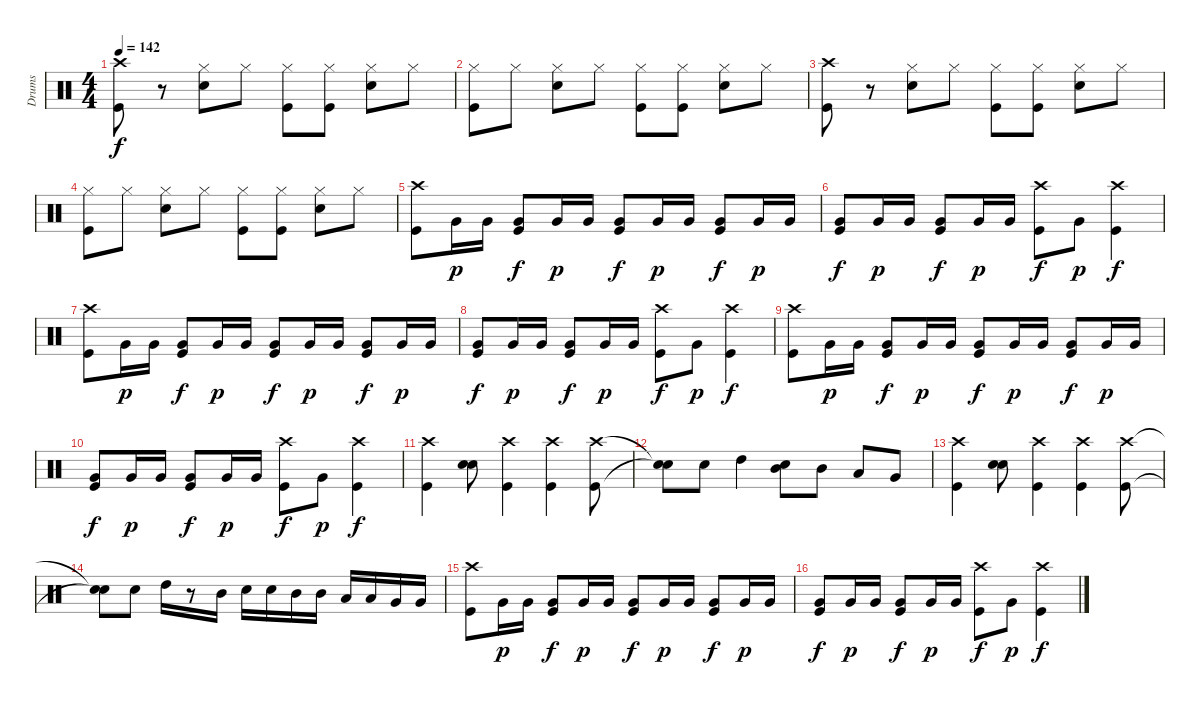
\track ("Drums" "Drums") {instrument percussion}
\staff {score}
\articulation defaults
\ts (4 4)
\tempo 142
\clef neutral
\ks c
("Kick (hit)" "Crash high (hit)").8{dy f} r.8 ("Hi-Hat (closed)" "Snare (hit) 2").8 "Hi-Hat (closed)".8 ("Kick (hit)" "Hi-Hat (closed)").8 ("Hi-Hat (closed)" "Kick (hit)").8 ("Hi-Hat (closed)" "Snare (hit) 2").8 "Hi-Hat (closed)".8 |
("Hi-Hat (closed)" "Kick (hit)").8 "Hi-Hat (closed)".8 ("Hi-Hat (closed)" "Snare (hit) 2").8 "Hi-Hat (closed)".8 ("Hi-Hat (closed)" "Kick (hit)").8 ("Hi-Hat (closed)" "Kick (hit)").8 ("Hi-Hat (closed)" "Snare (hit) 2").8 "Hi-Hat (closed)".8 |
("Kick (hit)" "Crash high (hit)").8 r.8 ("Hi-Hat (closed)" "Snare (hit) 2").8 "Hi-Hat (closed)".8 ("Kick (hit)" "Hi-Hat (closed)").8 ("Hi-Hat (closed)" "Kick (hit)").8 ("Hi-Hat (closed)" "Snare (hit) 2").8 "Hi-Hat (closed)".8 |
("Hi-Hat (closed)" "Kick (hit)").8 "Hi-Hat (closed)".8 ("Hi-Hat (closed)" "Snare (hit) 2").8 "Hi-Hat (closed)".8 ("Hi-Hat (closed)" "Kick (hit)").8 ("Hi-Hat (closed)" "Kick (hit)").8 ("Hi-Hat (closed)" "Snare (hit) 2").8 "Hi-Hat (closed)".8 |
("Kick (hit)" "Crash high (hit)").8 "Very Low Tom (hit)".16{dy p} "Very Low Tom (hit)".16 ("Kick (hit)" "Very Low Tom (hit)").8{dy f} "Very Low Tom (hit)".16{dy p} "Very Low Tom (hit)".16 ("Kick (hit)" "Very Low Tom (hit)").8{dy f} "Very Low Tom (hit)".16{dy p} "Very Low Tom (hit)".16 ("Very Low Tom (hit)" "Kick (hit)").8{dy f} "Very Low Tom (hit)".16{dy p} "Very Low Tom (hit)".16 |
("Very Low Tom (hit)" "Kick (hit)").8{dy f} "Very Low Tom (hit)".16{dy p} "Very Low Tom (hit)".16 ("Very Low Tom (hit)" "Kick (hit)").8{dy f} "Very Low Tom (hit)".16{dy p} "Very Low Tom (hit)".16 ("Kick (hit)" "Crash high (hit)").8{dy f} "Very Low Tom (hit)".8{dy p} ("Crash high (hit)" "Kick (hit)").4{dy f} |
("Kick (hit)" "Crash high (hit)").8 "Very Low Tom (hit)".16{dy p} "Very Low Tom (hit)".16 ("Kick (hit)" "Very Low Tom (hit)").8{dy f} "Very Low Tom (hit)".16{dy p} "Very Low Tom (hit)".16 ("Kick (hit)" "Very Low Tom (hit)").8{dy f} "Very Low Tom (hit)".16{dy p} "Very Low Tom (hit)".16 ("Very Low Tom (hit)" "Kick (hit)").8{dy f} "Very Low Tom (hit)".16{dy p} "Very Low Tom (hit)".16 |
("Very Low Tom (hit)" "Kick (hit)").8{dy f} "Very Low Tom (hit)".16{dy p} "Very Low Tom (hit)".16 ("Very Low Tom (hit)" "Kick (hit)").8{dy f} "Very Low Tom (hit)".16{dy p} "Very Low Tom (hit)".16 ("Kick (hit)" "Crash high (hit)").8{dy f} "Very Low Tom (hit)".8{dy p} ("Crash high (hit)" "Kick (hit)").4{dy f} |
("Kick (hit)" "Crash high (hit)").8 "Very Low Tom (hit)".16{dy p} "Very Low Tom (hit)".16 ("Kick (hit)" "Very Low Tom (hit)").8{dy f} "Very Low Tom (hit)".16{dy p} "Very Low Tom (hit)".16 ("Kick (hit)" "Very Low Tom (hit)").8{dy f} "Very Low Tom (hit)".16{dy p} "Very Low Tom (hit)".16 ("Very Low Tom (hit)" "Kick (hit)").8{dy f} "Very Low Tom (hit)".16{dy p} "Very Low Tom (hit)".16 |
("Very Low Tom (hit)" "Kick (hit)").8{dy f} "Very Low Tom (hit)".16{dy p} "Very Low Tom (hit)".16 ("Very Low Tom (hit)" "Kick (hit)").8{dy f} "Very Low Tom (hit)".16{dy p} "Very Low Tom (hit)".16 ("Kick (hit)" "Crash high (hit)").8{dy f} "Very Low Tom (hit)".8{dy p} ("Crash high (hit)" "Kick (hit)").4{dy f} |
("Crash high (hit)" "Kick (hit)").4 ("Snare (hit) 2" "Snare (hit) 2").8 ("Kick (hit)" "Crash high (hit)").4 ("Crash high (hit)" "Kick (hit)").4 ("Crash high (hit)" "Kick (hit)").8 |
("Snare (hit)"{t} "Snare (hit)"{t}).8 "Snare (hit) 2".8 "High Tom (hit)".4 ("Mid Tom (hit)" "Snare (hit) 2").8 "Mid Tom (hit)".8 "Low Tom (hit)".8 "Very Low Tom (hit)".8 |
("Crash high (hit)" "Kick (hit)").4 ("Snare (hit) 2" "Snare (hit) 2").8 ("Kick (hit)" "Crash high (hit)").4 ("Crash high (hit)" "Kick (hit)").4 ("Crash high (hit)" "Kick (hit)").8 |
("Snare (hit)"{t} "Snare (hit)"{t}).8 "Snare (hit) 2".8 "High Tom (hit)".16 r.8 "Mid Tom (hit)".16 "Snare (hit) 2".16 "Snare (hit) 2".16 "Mid Tom (hit)".16 "Mid Tom (hit)".16 "Low Tom (hit)".16 "Low Tom (hit)".16 "Very Low Tom (hit)".16 "Very Low Tom (hit)".16 |
("Kick (hit)" "Crash high (hit)").8 "Very Low Tom (hit)".16{dy p} "Very Low Tom (hit)".16 ("Kick (hit)" "Very Low Tom (hit)").8{dy f} "Very Low Tom (hit)".16{dy p} "Very Low Tom (hit)".16 ("Kick (hit)" "Very Low Tom (hit)").8{dy f} "Very Low Tom (hit)".16{dy p} "Very Low Tom (hit)".16 ("Very Low Tom (hit)" "Kick (hit)").8{dy f} "Very Low Tom (hit)".16{dy p} "Very Low Tom (hit)".16 |
("Very Low Tom (hit)" "Kick (hit)").8{dy f} "Very Low Tom (hit)".16{dy p} "Very Low Tom (hit)".16 ("Very Low Tom (hit)" "Kick (hit)").8{dy f} "Very Low Tom (hit)".16{dy p} "Very Low Tom (hit)".16 ("Kick (hit)" "Crash high (hit)").8{dy f} "Very Low Tom (hit)".8{dy p} ("Crash high (hit)" "Kick (hit)").4{dy f}
